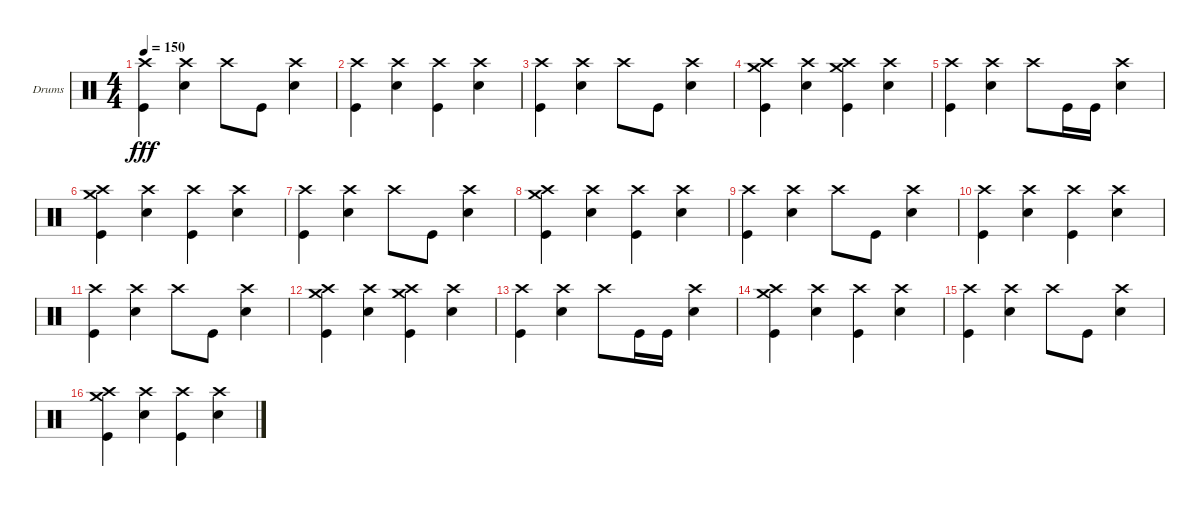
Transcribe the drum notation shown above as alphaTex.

\bracketExtendMode groupsimilarinstruments
\firstSystemTrackNameOrientation horizontal
\otherSystemsTrackNameOrientation horizontal
\track ("Drumkit" "Drums") {instrument percussion}
\staff {score}
\articulation defaults
\ts (4 4)
\tempo 150
\clef neutral
\ks c
("Crash high (hit)" "Kick (hit)").4{dy fff} ("Crash high (hit)" "Snare (hit) 2").4 "Crash high (hit)".8 "Kick (hit)".8 ("Crash high (hit)" "Snare (hit) 2").4 |
("Crash high (hit)" "Kick (hit)").4 ("Crash high (hit)" "Snare (hit) 2").4 ("Crash high (hit)" "Kick (hit)").4 ("Crash high (hit)" "Snare (hit) 2").4 |
("Crash high (hit)" "Kick (hit)").4 ("Crash high (hit)" "Snare (hit) 2").4 "Crash high (hit)".8 "Kick (hit)".8 ("Crash high (hit)" "Snare (hit) 2").4 |
("Crash high (hit)" "Crash medium (hit)" "Kick (hit)").4 ("Crash high (hit)" "Snare (hit) 2").4 ("Crash high (hit)" "Crash medium (hit)" "Kick (hit)").4 ("Crash high (hit)" "Snare (hit) 2").4 |
("Crash high (hit)" "Kick (hit)").4 ("Crash high (hit)" "Snare (hit) 2").4 "Crash high (hit)".8 "Kick (hit)".16 "Kick (hit)".16 ("Crash high (hit)" "Snare (hit) 2").4 |
("Crash high (hit)" "Crash medium (hit)" "Kick (hit)").4 ("Crash high (hit)" "Snare (hit) 2").4 ("Crash high (hit)" "Kick (hit)").4 ("Crash high (hit)" "Snare (hit) 2").4 |
("Crash high (hit)" "Kick (hit)").4 ("Crash high (hit)" "Snare (hit) 2").4 "Crash high (hit)".8 "Kick (hit)".8 ("Crash high (hit)" "Snare (hit) 2").4 |
("Crash high (hit)" "Crash medium (hit)" "Kick (hit)").4 ("Crash high (hit)" "Snare (hit) 2").4 ("Crash high (hit)" "Kick (hit)").4 ("Crash high (hit)" "Snare (hit) 2").4 |
("Crash high (hit)" "Kick (hit)").4 ("Crash high (hit)" "Snare (hit) 2").4 "Crash high (hit)".8 "Kick (hit)".8 ("Crash high (hit)" "Snare (hit) 2").4 |
("Crash high (hit)" "Kick (hit)").4 ("Crash high (hit)" "Snare (hit) 2").4 ("Crash high (hit)" "Kick (hit)").4 ("Crash high (hit)" "Snare (hit) 2").4 |
("Crash high (hit)" "Kick (hit)").4 ("Crash high (hit)" "Snare (hit) 2").4 "Crash high (hit)".8 "Kick (hit)".8 ("Crash high (hit)" "Snare (hit) 2").4 |
("Crash high (hit)" "Crash medium (hit)" "Kick (hit)").4 ("Crash high (hit)" "Snare (hit) 2").4 ("Crash high (hit)" "Crash medium (hit)" "Kick (hit)").4 ("Crash high (hit)" "Snare (hit) 2").4 |
("Crash high (hit)" "Kick (hit)").4 ("Crash high (hit)" "Snare (hit) 2").4 "Crash high (hit)".8 "Kick (hit)".16 "Kick (hit)".16 ("Crash high (hit)" "Snare (hit) 2").4 |
("Crash high (hit)" "Crash medium (hit)" "Kick (hit)").4 ("Crash high (hit)" "Snare (hit) 2").4 ("Crash high (hit)" "Kick (hit)").4 ("Crash high (hit)" "Snare (hit) 2").4 |
("Crash high (hit)" "Kick (hit)").4 ("Crash high (hit)" "Snare (hit) 2").4 "Crash high (hit)".8 "Kick (hit)".8 ("Crash high (hit)" "Snare (hit) 2").4 |
("Crash high (hit)" "Crash medium (hit)" "Kick (hit)").4 ("Crash high (hit)" "Snare (hit) 2").4 ("Crash high (hit)" "Kick (hit)").4 ("Crash high (hit)" "Snare (hit) 2").4
